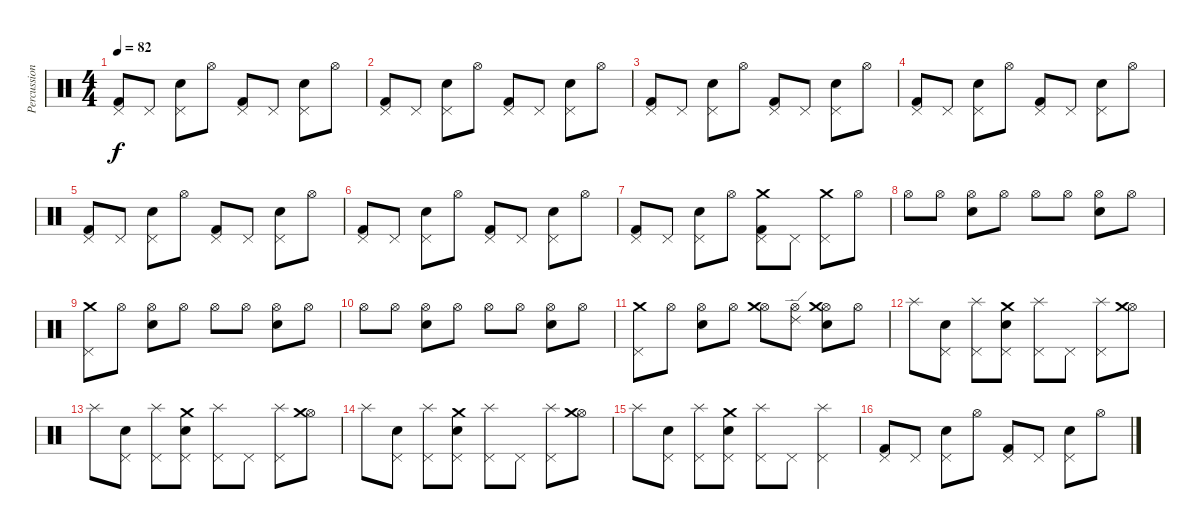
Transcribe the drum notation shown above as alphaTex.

\track ("Percussion" "Percussion") {instrument percussion}
\staff {score}
\articulation defaults
\ts (4 4)
\tempo 82
\clef neutral
\ks c
("Kick (hit) 2" "Pedal Hi-Hat (hit)").8{dy f} "Pedal Hi-Hat (hit)".8 ("Pedal Hi-Hat (hit)" "Snare (hit) 2").8 "Hi-Hat (open)".8 ("Kick (hit) 2" "Pedal Hi-Hat (hit)").8 "Pedal Hi-Hat (hit)".8 ("Pedal Hi-Hat (hit)" "Snare (hit) 2").8 "Hi-Hat (open)".8 |
("Kick (hit) 2" "Pedal Hi-Hat (hit)").8 "Pedal Hi-Hat (hit)".8 ("Pedal Hi-Hat (hit)" "Snare (hit) 2").8 "Hi-Hat (open)".8 ("Kick (hit) 2" "Pedal Hi-Hat (hit)").8 "Pedal Hi-Hat (hit)".8 ("Pedal Hi-Hat (hit)" "Snare (hit) 2").8 "Hi-Hat (open)".8 |
("Kick (hit) 2" "Pedal Hi-Hat (hit)").8 "Pedal Hi-Hat (hit)".8 ("Pedal Hi-Hat (hit)" "Snare (hit) 2").8 "Hi-Hat (open)".8 ("Kick (hit) 2" "Pedal Hi-Hat (hit)").8 "Pedal Hi-Hat (hit)".8 ("Pedal Hi-Hat (hit)" "Snare (hit) 2").8 "Hi-Hat (open)".8 |
("Kick (hit) 2" "Pedal Hi-Hat (hit)").8 "Pedal Hi-Hat (hit)".8 ("Pedal Hi-Hat (hit)" "Snare (hit) 2").8 "Hi-Hat (open)".8 ("Kick (hit) 2" "Pedal Hi-Hat (hit)").8 "Pedal Hi-Hat (hit)".8 ("Pedal Hi-Hat (hit)" "Snare (hit) 2").8 "Hi-Hat (open)".8 |
("Kick (hit) 2" "Pedal Hi-Hat (hit)").8 "Pedal Hi-Hat (hit)".8 ("Pedal Hi-Hat (hit)" "Snare (hit) 2").8 "Hi-Hat (open)".8 ("Kick (hit) 2" "Pedal Hi-Hat (hit)").8 "Pedal Hi-Hat (hit)".8 ("Pedal Hi-Hat (hit)" "Snare (hit) 2").8 "Hi-Hat (open)".8 |
("Kick (hit) 2" "Pedal Hi-Hat (hit)").8 "Pedal Hi-Hat (hit)".8 ("Pedal Hi-Hat (hit)" "Snare (hit) 2").8 "Hi-Hat (open)".8 ("Kick (hit) 2" "Pedal Hi-Hat (hit)").8 "Pedal Hi-Hat (hit)".8 ("Pedal Hi-Hat (hit)" "Snare (hit) 2").8 "Hi-Hat (open)".8 |
("Kick (hit) 2" "Pedal Hi-Hat (hit)").8 "Pedal Hi-Hat (hit)".8 ("Pedal Hi-Hat (hit)" "Snare (hit) 2").8 "Hi-Hat (open)".8 ("Kick (hit) 2" "Pedal Hi-Hat (hit)" "Crash medium (hit)").8 "Pedal Hi-Hat (hit)".8 ("Pedal Hi-Hat (hit)" "Crash medium (hit)").8 "Hi-Hat (open)".8 |
"Hi-Hat (open)".8 "Hi-Hat (open)".8 ("Hi-Hat (open)" "Snare (hit) 2").8 "Hi-Hat (open)".8 "Hi-Hat (open)".8 "Hi-Hat (open)".8 ("Hi-Hat (open)" "Snare (hit) 2").8 "Hi-Hat (open)".8 |
("Pedal Hi-Hat (hit)" "Crash medium (hit)").8 "Hi-Hat (open)".8 ("Hi-Hat (open)" "Snare (hit) 2").8 "Hi-Hat (open)".8 "Hi-Hat (open)".8 "Hi-Hat (open)".8 ("Hi-Hat (open)" "Snare (hit) 2").8 "Hi-Hat (open)".8 |
"Hi-Hat (open)".8 "Hi-Hat (open)".8 ("Hi-Hat (open)" "Snare (hit) 2").8 "Hi-Hat (open)".8 "Hi-Hat (open)".8 "Hi-Hat (open)".8 ("Hi-Hat (open)" "Snare (hit) 2").8 "Hi-Hat (open)".8 |
("Pedal Hi-Hat (hit)" "Crash medium (hit)").8 "Hi-Hat (open)".8 ("Hi-Hat (open)" "Snare (hit) 2").8 "Hi-Hat (open)".8 ("Hi-Hat (open)" "Crash medium (hit)").8 ("Hi-Hat (open)" "Ride (edge) 2").8 ("Hi-Hat (open)" "Snare (hit) 2" "Crash medium (hit)").8 "Hi-Hat (open)".8 |
"Splash (hit)".8 ("Pedal Hi-Hat (hit)" "Snare (hit) 2").8 ("Pedal Hi-Hat (hit)" "Splash (hit)").8 ("Pedal Hi-Hat (hit)" "Snare (hit) 2" "Crash medium (hit)").8 ("Pedal Hi-Hat (hit)" "Splash (hit)").8 "Pedal Hi-Hat (hit)".8 ("Pedal Hi-Hat (hit)" "Splash (hit)").8 ("Hi-Hat (open)" "Crash medium (hit)").8 |
"Splash (hit)".8 ("Pedal Hi-Hat (hit)" "Snare (hit) 2").8 ("Pedal Hi-Hat (hit)" "Splash (hit)").8 ("Pedal Hi-Hat (hit)" "Snare (hit) 2" "Crash medium (hit)").8 ("Pedal Hi-Hat (hit)" "Splash (hit)").8 "Pedal Hi-Hat (hit)".8 ("Pedal Hi-Hat (hit)" "Splash (hit)").8 ("Hi-Hat (open)" "Crash medium (hit)").8 |
"Splash (hit)".8 ("Pedal Hi-Hat (hit)" "Snare (hit) 2").8 ("Pedal Hi-Hat (hit)" "Splash (hit)").8 ("Pedal Hi-Hat (hit)" "Snare (hit) 2" "Crash medium (hit)").8 ("Pedal Hi-Hat (hit)" "Splash (hit)").8 "Pedal Hi-Hat (hit)".8 ("Pedal Hi-Hat (hit)" "Splash (hit)").8 ("Hi-Hat (open)" "Crash medium (hit)").8 |
"Splash (hit)".8 ("Pedal Hi-Hat (hit)" "Snare (hit) 2").8 ("Pedal Hi-Hat (hit)" "Splash (hit)").8 ("Pedal Hi-Hat (hit)" "Snare (hit) 2" "Crash medium (hit)").8 ("Pedal Hi-Hat (hit)" "Splash (hit)").8 "Pedal Hi-Hat (hit)".8 ("Pedal Hi-Hat (hit)" "Splash (hit)").4 |
("Kick (hit) 2" "Pedal Hi-Hat (hit)").8 "Pedal Hi-Hat (hit)".8 ("Pedal Hi-Hat (hit)" "Snare (hit) 2").8 "Hi-Hat (open)".8 ("Kick (hit) 2" "Pedal Hi-Hat (hit)").8 "Pedal Hi-Hat (hit)".8 ("Pedal Hi-Hat (hit)" "Snare (hit) 2").8 "Hi-Hat (open)".8
